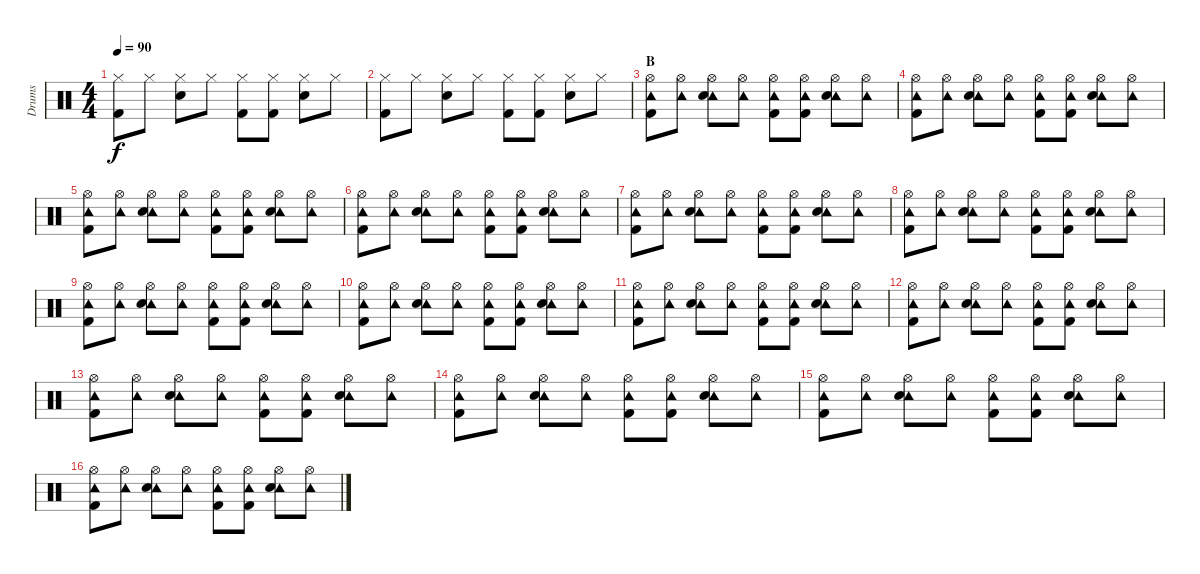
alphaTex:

\track ("Drums" "Drums") {instrument percussion}
\staff {score}
\articulation defaults
\ts (4 4)
\tempo 90
\clef neutral
\ks c
("Hi-Hat (closed)" "Kick (hit) 2").8{dy f} "Hi-Hat (closed)".8 ("Hi-Hat (closed)" "Snare (hit) 2").8 "Hi-Hat (closed)".8 ("Hi-Hat (closed)" "Kick (hit) 2").8 ("Hi-Hat (closed)" "Kick (hit) 2").8 ("Hi-Hat (closed)" "Snare (hit) 2").8 "Hi-Hat (closed)".8 |
("Hi-Hat (closed)" "Kick (hit) 2").8 "Hi-Hat (closed)".8 ("Hi-Hat (closed)" "Snare (hit) 2").8 "Hi-Hat (closed)".8 ("Hi-Hat (closed)" "Kick (hit) 2").8 ("Hi-Hat (closed)" "Kick (hit) 2").8 ("Hi-Hat (closed)" "Snare (hit) 2").8 "Hi-Hat (closed)".8 |
\section ("" "B")
("Tambourine (hit)" "Hi-Hat (open)" "Kick (hit) 2").8 ("Tambourine (hit)" "Hi-Hat (open)").8 ("Tambourine (hit)" "Hi-Hat (open)" "Snare (hit) 2").8 ("Tambourine (hit)" "Hi-Hat (open)").8 ("Tambourine (hit)" "Hi-Hat (open)" "Kick (hit) 2").8 ("Tambourine (hit)" "Hi-Hat (open)" "Kick (hit) 2").8 ("Tambourine (hit)" "Hi-Hat (open)" "Snare (hit) 2").8 ("Tambourine (hit)" "Hi-Hat (open)").8 |
("Tambourine (hit)" "Hi-Hat (open)" "Kick (hit) 2").8 ("Tambourine (hit)" "Hi-Hat (open)").8 ("Tambourine (hit)" "Hi-Hat (open)" "Snare (hit) 2").8 ("Tambourine (hit)" "Hi-Hat (open)").8 ("Tambourine (hit)" "Hi-Hat (open)" "Kick (hit) 2").8 ("Tambourine (hit)" "Hi-Hat (open)" "Kick (hit) 2").8 ("Tambourine (hit)" "Hi-Hat (open)" "Snare (hit) 2").8 ("Tambourine (hit)" "Hi-Hat (open)").8 |
("Tambourine (hit)" "Hi-Hat (open)" "Kick (hit) 2").8 ("Tambourine (hit)" "Hi-Hat (open)").8 ("Tambourine (hit)" "Hi-Hat (open)" "Snare (hit) 2").8 ("Tambourine (hit)" "Hi-Hat (open)").8 ("Tambourine (hit)" "Hi-Hat (open)" "Kick (hit) 2").8 ("Tambourine (hit)" "Hi-Hat (open)" "Kick (hit) 2").8 ("Tambourine (hit)" "Hi-Hat (open)" "Snare (hit) 2").8 ("Tambourine (hit)" "Hi-Hat (open)").8 |
("Tambourine (hit)" "Hi-Hat (open)" "Kick (hit) 2").8 ("Tambourine (hit)" "Hi-Hat (open)").8 ("Tambourine (hit)" "Hi-Hat (open)" "Snare (hit) 2").8 ("Tambourine (hit)" "Hi-Hat (open)").8 ("Tambourine (hit)" "Hi-Hat (open)" "Kick (hit) 2").8 ("Tambourine (hit)" "Hi-Hat (open)" "Kick (hit) 2").8 ("Tambourine (hit)" "Hi-Hat (open)" "Snare (hit) 2").8 ("Tambourine (hit)" "Hi-Hat (open)").8 |
("Tambourine (hit)" "Hi-Hat (open)" "Kick (hit) 2").8 ("Tambourine (hit)" "Hi-Hat (open)").8 ("Tambourine (hit)" "Hi-Hat (open)" "Snare (hit) 2").8 ("Tambourine (hit)" "Hi-Hat (open)").8 ("Tambourine (hit)" "Hi-Hat (open)" "Kick (hit) 2").8 ("Tambourine (hit)" "Hi-Hat (open)" "Kick (hit) 2").8 ("Tambourine (hit)" "Hi-Hat (open)" "Snare (hit) 2").8 ("Tambourine (hit)" "Hi-Hat (open)").8 |
("Tambourine (hit)" "Hi-Hat (open)" "Kick (hit) 2").8 ("Tambourine (hit)" "Hi-Hat (open)").8 ("Tambourine (hit)" "Hi-Hat (open)" "Snare (hit) 2").8 ("Tambourine (hit)" "Hi-Hat (open)").8 ("Tambourine (hit)" "Hi-Hat (open)" "Kick (hit) 2").8 ("Tambourine (hit)" "Hi-Hat (open)" "Kick (hit) 2").8 ("Tambourine (hit)" "Hi-Hat (open)" "Snare (hit) 2").8 ("Tambourine (hit)" "Hi-Hat (open)").8 |
("Tambourine (hit)" "Hi-Hat (open)" "Kick (hit) 2").8 ("Tambourine (hit)" "Hi-Hat (open)").8 ("Tambourine (hit)" "Hi-Hat (open)" "Snare (hit) 2").8 ("Tambourine (hit)" "Hi-Hat (open)").8 ("Tambourine (hit)" "Hi-Hat (open)" "Kick (hit) 2").8 ("Tambourine (hit)" "Hi-Hat (open)" "Kick (hit) 2").8 ("Tambourine (hit)" "Hi-Hat (open)" "Snare (hit) 2").8 ("Tambourine (hit)" "Hi-Hat (open)").8 |
("Tambourine (hit)" "Hi-Hat (open)" "Kick (hit) 2").8 ("Tambourine (hit)" "Hi-Hat (open)").8 ("Tambourine (hit)" "Hi-Hat (open)" "Snare (hit) 2").8 ("Tambourine (hit)" "Hi-Hat (open)").8 ("Tambourine (hit)" "Hi-Hat (open)" "Kick (hit) 2").8 ("Tambourine (hit)" "Hi-Hat (open)" "Kick (hit) 2").8 ("Tambourine (hit)" "Hi-Hat (open)" "Snare (hit) 2").8 ("Tambourine (hit)" "Hi-Hat (open)").8 |
("Tambourine (hit)" "Hi-Hat (open)" "Kick (hit) 2").8 ("Tambourine (hit)" "Hi-Hat (open)").8 ("Tambourine (hit)" "Hi-Hat (open)" "Snare (hit) 2").8 ("Tambourine (hit)" "Hi-Hat (open)").8 ("Tambourine (hit)" "Hi-Hat (open)" "Kick (hit) 2").8 ("Tambourine (hit)" "Hi-Hat (open)" "Kick (hit) 2").8 ("Tambourine (hit)" "Hi-Hat (open)" "Snare (hit) 2").8 ("Tambourine (hit)" "Hi-Hat (open)").8 |
("Tambourine (hit)" "Hi-Hat (open)" "Kick (hit) 2").8 ("Tambourine (hit)" "Hi-Hat (open)").8 ("Tambourine (hit)" "Hi-Hat (open)" "Snare (hit) 2").8 ("Tambourine (hit)" "Hi-Hat (open)").8 ("Tambourine (hit)" "Hi-Hat (open)" "Kick (hit) 2").8 ("Tambourine (hit)" "Hi-Hat (open)" "Kick (hit) 2").8 ("Tambourine (hit)" "Hi-Hat (open)" "Snare (hit) 2").8 ("Tambourine (hit)" "Hi-Hat (open)").8 |
("Tambourine (hit)" "Hi-Hat (open)" "Kick (hit) 2").8 ("Tambourine (hit)" "Hi-Hat (open)").8 ("Tambourine (hit)" "Hi-Hat (open)" "Snare (hit) 2").8 ("Tambourine (hit)" "Hi-Hat (open)").8 ("Tambourine (hit)" "Hi-Hat (open)" "Kick (hit) 2").8 ("Tambourine (hit)" "Hi-Hat (open)" "Kick (hit) 2").8 ("Tambourine (hit)" "Hi-Hat (open)" "Snare (hit) 2").8 ("Tambourine (hit)" "Hi-Hat (open)").8 |
("Tambourine (hit)" "Hi-Hat (open)" "Kick (hit) 2").8 ("Tambourine (hit)" "Hi-Hat (open)").8 ("Tambourine (hit)" "Hi-Hat (open)" "Snare (hit) 2").8 ("Tambourine (hit)" "Hi-Hat (open)").8 ("Tambourine (hit)" "Hi-Hat (open)" "Kick (hit) 2").8 ("Tambourine (hit)" "Hi-Hat (open)" "Kick (hit) 2").8 ("Tambourine (hit)" "Hi-Hat (open)" "Snare (hit) 2").8 ("Tambourine (hit)" "Hi-Hat (open)").8 |
("Tambourine (hit)" "Hi-Hat (open)" "Kick (hit) 2").8 ("Tambourine (hit)" "Hi-Hat (open)").8 ("Tambourine (hit)" "Hi-Hat (open)" "Snare (hit) 2").8 ("Tambourine (hit)" "Hi-Hat (open)").8 ("Tambourine (hit)" "Hi-Hat (open)" "Kick (hit) 2").8 ("Tambourine (hit)" "Hi-Hat (open)" "Kick (hit) 2").8 ("Tambourine (hit)" "Hi-Hat (open)" "Snare (hit) 2").8 ("Tambourine (hit)" "Hi-Hat (open)").8 |
("Tambourine (hit)" "Hi-Hat (open)" "Kick (hit) 2").8 ("Tambourine (hit)" "Hi-Hat (open)").8 ("Tambourine (hit)" "Hi-Hat (open)" "Snare (hit) 2").8 ("Tambourine (hit)" "Hi-Hat (open)").8 ("Tambourine (hit)" "Hi-Hat (open)" "Kick (hit) 2").8 ("Tambourine (hit)" "Hi-Hat (open)" "Kick (hit) 2").8 ("Tambourine (hit)" "Hi-Hat (open)" "Snare (hit) 2").8 ("Tambourine (hit)" "Hi-Hat (open)").8
